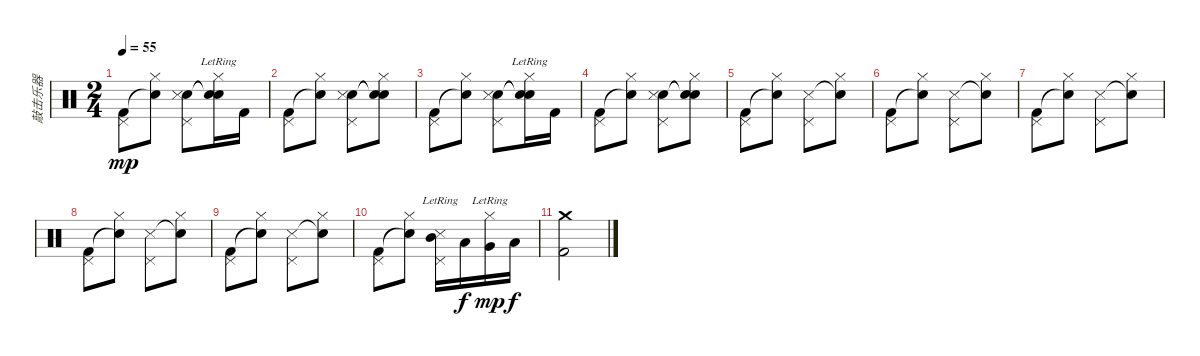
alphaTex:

\track ("敲击乐器" "敲击乐器") {instrument percussion}
\staff {score}
\articulation defaults
\ts (2 4)
\tempo 55
\clef neutral
\ks c
("Kick (hit) 2" "Pedal Hi-Hat (hit)").8{dy mp} ("Snare (hit)"{t} "Hi-Hat (closed)").8 ("Snare (hit) 2" "Snare (side stick) 3" "Pedal Hi-Hat (hit)").8 ("Snare (hit)"{t} "Snare (hit)"{t} "Hi-Hat (closed)"{lr}).16 "Kick (hit) 2".16 |
("Kick (hit) 2" "Pedal Hi-Hat (hit)").8 ("Snare (hit)"{t} "Hi-Hat (closed)").8 ("Snare (hit) 2" "Snare (side stick) 3" "Pedal Hi-Hat (hit)").8 ("Snare (hit)"{t} "Snare (hit)"{t} "Hi-Hat (closed)").8 |
("Kick (hit) 2" "Pedal Hi-Hat (hit)").8 ("Snare (hit)"{t} "Hi-Hat (closed)").8 ("Snare (hit) 2" "Snare (side stick) 3" "Pedal Hi-Hat (hit)").8 ("Snare (hit)"{t} "Snare (hit)"{t} "Hi-Hat (closed)"{lr}).16 "Kick (hit) 2".16 |
("Kick (hit) 2" "Pedal Hi-Hat (hit)").8 ("Snare (hit)"{t} "Hi-Hat (closed)").8 ("Snare (hit) 2" "Snare (side stick) 3" "Pedal Hi-Hat (hit)").8 ("Snare (hit)"{t} "Snare (hit)"{t} "Hi-Hat (closed)").8 |
("Kick (hit) 2" "Pedal Hi-Hat (hit)").8 ("Snare (hit)"{t} "Hi-Hat (closed)").8 ("Snare (side stick) 3" "Pedal Hi-Hat (hit)").8 ("Snare (hit)"{t} "Hi-Hat (closed)").8 |
("Kick (hit) 2" "Pedal Hi-Hat (hit)").8 ("Snare (hit)"{t} "Hi-Hat (closed)").8 ("Snare (side stick) 3" "Pedal Hi-Hat (hit)").8 ("Snare (hit)"{t} "Hi-Hat (closed)").8 |
("Kick (hit) 2" "Pedal Hi-Hat (hit)").8 ("Snare (hit)"{t} "Hi-Hat (closed)").8 ("Snare (side stick) 3" "Pedal Hi-Hat (hit)").8 ("Snare (hit)"{t} "Hi-Hat (closed)").8 |
("Kick (hit) 2" "Pedal Hi-Hat (hit)").8 ("Snare (hit)"{t} "Hi-Hat (closed)").8 ("Snare (side stick) 3" "Pedal Hi-Hat (hit)").8 ("Snare (hit)"{t} "Hi-Hat (closed)").8 |
("Kick (hit) 2" "Pedal Hi-Hat (hit)").8 ("Snare (hit)"{t} "Hi-Hat (closed)").8 ("Snare (side stick) 3" "Pedal Hi-Hat (hit)").8 ("Snare (hit)"{t} "Hi-Hat (closed)").8 |
("Kick (hit) 2" "Pedal Hi-Hat (hit)").8 ("Snare (hit)"{t} "Hi-Hat (closed)").8 ("Mid Tom (hit)" "Snare (side stick) 3"{lr} "Pedal Hi-Hat (hit)"{lr}).16 "Low Tom (hit)".16{dy f} ("Very Low Tom (hit)" "Hi-Hat (closed)"{lr}).16{dy mp} "Low Floor Tom (hit)".16{dy f} |
("Kick (hit) 2" "Crash medium (hit)").2
